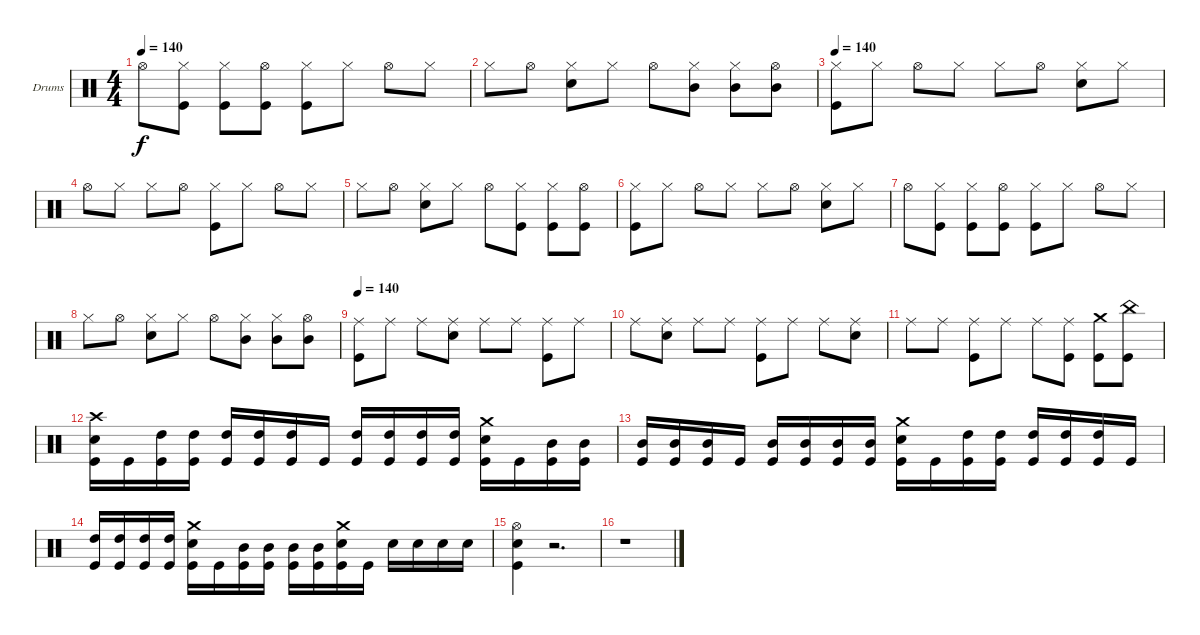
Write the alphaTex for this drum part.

\bracketExtendMode groupsimilarinstruments
\firstSystemTrackNameOrientation horizontal
\otherSystemsTrackNameOrientation horizontal
\track ("Drumkit" "Drums") {instrument percussion}
\staff {score}
\articulation defaults
\ts (4 4)
\tempo 140
\clef neutral
\ks c "Hi-Hat (open)".8{dy f}
("Kick (hit)" "Hi-Hat (closed)").8 ("Kick (hit)" "Hi-Hat (closed)").8 ("Kick (hit)" "Hi-Hat (open)").8 ("Kick (hit)" "Hi-Hat (closed)").8 "Hi-Hat (closed)".8 "Hi-Hat (open)".8 "Hi-Hat (closed)".8 |
"Hi-Hat (closed)".8 "Hi-Hat (open)".8 ("Snare (hit) 2" "Hi-Hat (closed)").8 "Hi-Hat (closed)".8 "Hi-Hat (open)".8 ("Mid Tom (hit)" "Hi-Hat (closed)").8 ("Mid Tom (hit)" "Hi-Hat (closed)").8 ("Mid Tom (hit)" "Hi-Hat (open)").8 |
\tempo 140
("Kick (hit)" "Hi-Hat (closed)").8 "Hi-Hat (closed)".8 "Hi-Hat (open)".8 "Hi-Hat (closed)".8 "Hi-Hat (closed)".8 "Hi-Hat (open)".8 ("Snare (hit) 2" "Hi-Hat (closed)").8 "Hi-Hat (closed)".8 |
"Hi-Hat (open)".8 "Hi-Hat (closed)".8 "Hi-Hat (closed)".8 "Hi-Hat (open)".8 ("Kick (hit)" "Hi-Hat (closed)").8 "Hi-Hat (closed)".8 "Hi-Hat (open)".8 "Hi-Hat (closed)".8 |
"Hi-Hat (closed)".8 "Hi-Hat (open)".8 ("Snare (hit) 2" "Hi-Hat (closed)").8 "Hi-Hat (closed)".8 "Hi-Hat (open)".8 ("Kick (hit)" "Hi-Hat (closed)").8 ("Kick (hit)" "Hi-Hat (closed)").8 ("Kick (hit)" "Hi-Hat (open)").8 |
("Kick (hit)" "Hi-Hat (closed)").8 "Hi-Hat (closed)".8 "Hi-Hat (open)".8 "Hi-Hat (closed)".8 "Hi-Hat (closed)".8 "Hi-Hat (open)".8 ("Snare (hit) 2" "Hi-Hat (closed)").8 "Hi-Hat (closed)".8 |
"Hi-Hat (open)".8 ("Kick (hit)" "Hi-Hat (closed)").8 ("Kick (hit)" "Hi-Hat (closed)").8 ("Kick (hit)" "Hi-Hat (open)").8 ("Kick (hit)" "Hi-Hat (closed)").8 "Hi-Hat (closed)".8 "Hi-Hat (open)".8 "Hi-Hat (closed)".8 |
"Hi-Hat (closed)".8 "Hi-Hat (open)".8 ("Snare (hit) 2" "Hi-Hat (closed)").8 "Hi-Hat (closed)".8 "Hi-Hat (open)".8 ("Mid Tom (hit)" "Hi-Hat (closed)").8 ("Mid Tom (hit)" "Hi-Hat (closed)").8 ("Mid Tom (hit)" "Hi-Hat (open)").8 |
\tempo 140
("Kick (hit)" "Ride (middle)").8 "Ride (middle)".8 "Ride (middle)".8 ("Snare (hit) 2" "Ride (middle)").8 "Ride (middle)".8 "Ride (middle)".8 ("Kick (hit)" "Ride (middle)").8 "Ride (middle)".8 |
"Ride (middle)".8 ("Snare (hit) 2" "Ride (middle)").8 "Ride (middle)".8 "Ride (middle)".8 ("Kick (hit)" "Ride (middle)").8 "Ride (middle)".8 "Ride (middle)".8 ("Snare (hit) 2" "Ride (middle)").8 |
"Ride (middle)".8 "Ride (middle)".8 ("Kick (hit)" "Ride (middle)").8 "Ride (middle)".8 "Ride (middle)".8 ("Kick (hit)" "Ride (middle)").8 ("Kick (hit)" "Crash medium (hit)").8 ("Kick (hit)" "China (hit)").8 |
("Kick (hit)" "Snare (hit) 2" "Crash high (hit)").16 "Kick (hit)".16 ("Kick (hit)" "High Tom (hit)").16 ("Kick (hit)" "High Tom (hit)").16 ("Kick (hit)" "High Tom (hit)").16 ("Kick (hit)" "High Tom (hit)").16 ("Kick (hit)" "High Tom (hit)").16 "Kick (hit)".16 ("Kick (hit)" "High Tom (hit)").16 ("Kick (hit)" "High Tom (hit)").16 ("Kick (hit)" "High Tom (hit)").16 ("Kick (hit)" "High Tom (hit)").16 ("Kick (hit)" "Snare (hit) 2" "Crash medium (hit)").16 "Kick (hit)".16 ("Kick (hit)" "Mid Tom (hit)").16 ("Kick (hit)" "Mid Tom (hit)").16 |
("Kick (hit)" "Mid Tom (hit)").16 ("Kick (hit)" "Mid Tom (hit)").16 ("Kick (hit)" "Mid Tom (hit)").16 "Kick (hit)".16 ("Kick (hit)" "Mid Tom (hit)").16 ("Kick (hit)" "Mid Tom (hit)").16 ("Kick (hit)" "Mid Tom (hit)").16 ("Kick (hit)" "Mid Tom (hit)").16 ("Kick (hit)" "Snare (hit) 2" "Crash medium (hit)").16 "Kick (hit)".16 ("Kick (hit)" "High Tom (hit)").16 ("Kick (hit)" "High Tom (hit)").16 ("Kick (hit)" "High Tom (hit)").16 ("Kick (hit)" "High Tom (hit)").16 ("Kick (hit)" "High Tom (hit)").16 "Kick (hit)".16 |
("Kick (hit)" "High Tom (hit)").16 ("Kick (hit)" "High Tom (hit)").16 ("Kick (hit)" "High Tom (hit)").16 ("Kick (hit)" "High Tom (hit)").16 ("Kick (hit)" "Snare (hit) 2" "Crash medium (hit)").16 "Kick (hit)".16 ("Kick (hit)" "Mid Tom (hit)").16 ("Kick (hit)" "Mid Tom (hit)").16 ("Kick (hit)" "Mid Tom (hit)").16 ("Kick (hit)" "Mid Tom (hit)").16 ("Kick (hit)" "Snare (hit) 2" "Crash medium (hit)").16 "Kick (hit)".16 "Snare (hit) 2".16 "Snare (hit) 2".16 "Snare (hit) 2".16 "Snare (hit) 2".16 |
("Kick (hit)" "Snare (hit) 2" "Hi-Hat (open)").4 r.2{d} |
r.1
